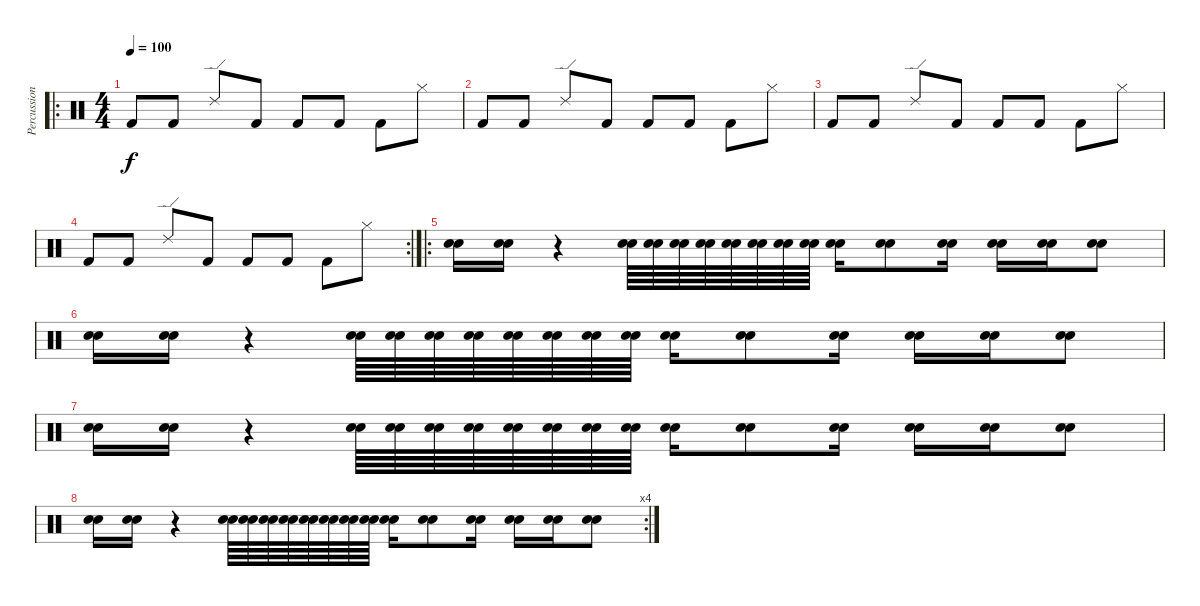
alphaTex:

\track ("Percussions" "Percussion") {instrument percussion}
\staff {score}
\articulation defaults
\ro
\ts (4 4)
\tempo 100
\clef neutral
\ks c "Kick (hit) 2".8{dy f} "Kick (hit) 2".8 "Ride (edge) 2".8 "Kick (hit) 2".8 "Kick (hit) 2".8 "Kick (hit) 2".8 "Kick (hit) 2".8 "Hi-Hat (closed)".8
|
"Kick (hit) 2".8 "Kick (hit) 2".8 "Ride (edge) 2".8 "Kick (hit) 2".8 "Kick (hit) 2".8 "Kick (hit) 2".8 "Kick (hit) 2".8 "Hi-Hat (closed)".8 |
"Kick (hit) 2".8 "Kick (hit) 2".8 "Ride (edge) 2".8 "Kick (hit) 2".8 "Kick (hit) 2".8 "Kick (hit) 2".8 "Kick (hit) 2".8 "Hi-Hat (closed)".8 |
\rc 2 "Kick (hit) 2".8 "Kick (hit) 2".8 "Ride (edge) 2".8 "Kick (hit) 2".8 "Kick (hit) 2".8 "Kick (hit) 2".8 "Kick (hit) 2".8 "Hi-Hat (closed)".8
|
\ro
("Snare (hit) 2" "Electric Snare (hit)").16 ("Snare (hit) 2" "Electric Snare (hit)").16 r.4 ("Snare (hit) 2" "Electric Snare (hit)").64 ("Snare (hit) 2" "Electric Snare (hit)").64 ("Snare (hit) 2" "Electric Snare (hit)").64 ("Snare (hit) 2" "Electric Snare (hit)").64 ("Snare (hit) 2" "Electric Snare (hit)").64 ("Snare (hit) 2" "Electric Snare (hit)").64 ("Snare (hit) 2" "Electric Snare (hit)").64 ("Snare (hit) 2" "Electric Snare (hit)").64 ("Snare (hit) 2" "Electric Snare (hit)").16 ("Snare (hit) 2" "Electric Snare (hit)").8 ("Snare (hit) 2" "Electric Snare (hit)").16 ("Snare (hit) 2" "Electric Snare (hit)").16 ("Snare (hit) 2" "Electric Snare (hit)").16 ("Snare (hit) 2" "Electric Snare (hit)").8 |
("Snare (hit) 2" "Electric Snare (hit)").16 ("Snare (hit) 2" "Electric Snare (hit)").16 r.4 ("Snare (hit) 2" "Electric Snare (hit)").64 ("Snare (hit) 2" "Electric Snare (hit)").64 ("Snare (hit) 2" "Electric Snare (hit)").64 ("Snare (hit) 2" "Electric Snare (hit)").64 ("Snare (hit) 2" "Electric Snare (hit)").64 ("Snare (hit) 2" "Electric Snare (hit)").64 ("Snare (hit) 2" "Electric Snare (hit)").64 ("Snare (hit) 2" "Electric Snare (hit)").64 ("Snare (hit) 2" "Electric Snare (hit)").16 ("Snare (hit) 2" "Electric Snare (hit)").8 ("Snare (hit) 2" "Electric Snare (hit)").16 ("Snare (hit) 2" "Electric Snare (hit)").16 ("Snare (hit) 2" "Electric Snare (hit)").16 ("Snare (hit) 2" "Electric Snare (hit)").8 |
("Snare (hit) 2" "Electric Snare (hit)").16 ("Snare (hit) 2" "Electric Snare (hit)").16 r.4 ("Snare (hit) 2" "Electric Snare (hit)").64 ("Snare (hit) 2" "Electric Snare (hit)").64 ("Snare (hit) 2" "Electric Snare (hit)").64 ("Snare (hit) 2" "Electric Snare (hit)").64 ("Snare (hit) 2" "Electric Snare (hit)").64 ("Snare (hit) 2" "Electric Snare (hit)").64 ("Snare (hit) 2" "Electric Snare (hit)").64 ("Snare (hit) 2" "Electric Snare (hit)").64 ("Snare (hit) 2" "Electric Snare (hit)").16 ("Snare (hit) 2" "Electric Snare (hit)").8 ("Snare (hit) 2" "Electric Snare (hit)").16 ("Snare (hit) 2" "Electric Snare (hit)").16 ("Snare (hit) 2" "Electric Snare (hit)").16 ("Snare (hit) 2" "Electric Snare (hit)").8 |
\rc 4
("Snare (hit) 2" "Electric Snare (hit)").16 ("Snare (hit) 2" "Electric Snare (hit)").16 r.4 ("Snare (hit) 2" "Electric Snare (hit)").64 ("Snare (hit) 2" "Electric Snare (hit)").64 ("Snare (hit) 2" "Electric Snare (hit)").64 ("Snare (hit) 2" "Electric Snare (hit)").64 ("Snare (hit) 2" "Electric Snare (hit)").64 ("Snare (hit) 2" "Electric Snare (hit)").64 ("Snare (hit) 2" "Electric Snare (hit)").64 ("Snare (hit) 2" "Electric Snare (hit)").64 ("Snare (hit) 2" "Electric Snare (hit)").16 ("Snare (hit) 2" "Electric Snare (hit)").8 ("Snare (hit) 2" "Electric Snare (hit)").16 ("Snare (hit) 2" "Electric Snare (hit)").16 ("Snare (hit) 2" "Electric Snare (hit)").16 ("Snare (hit) 2" "Electric Snare (hit)").8
